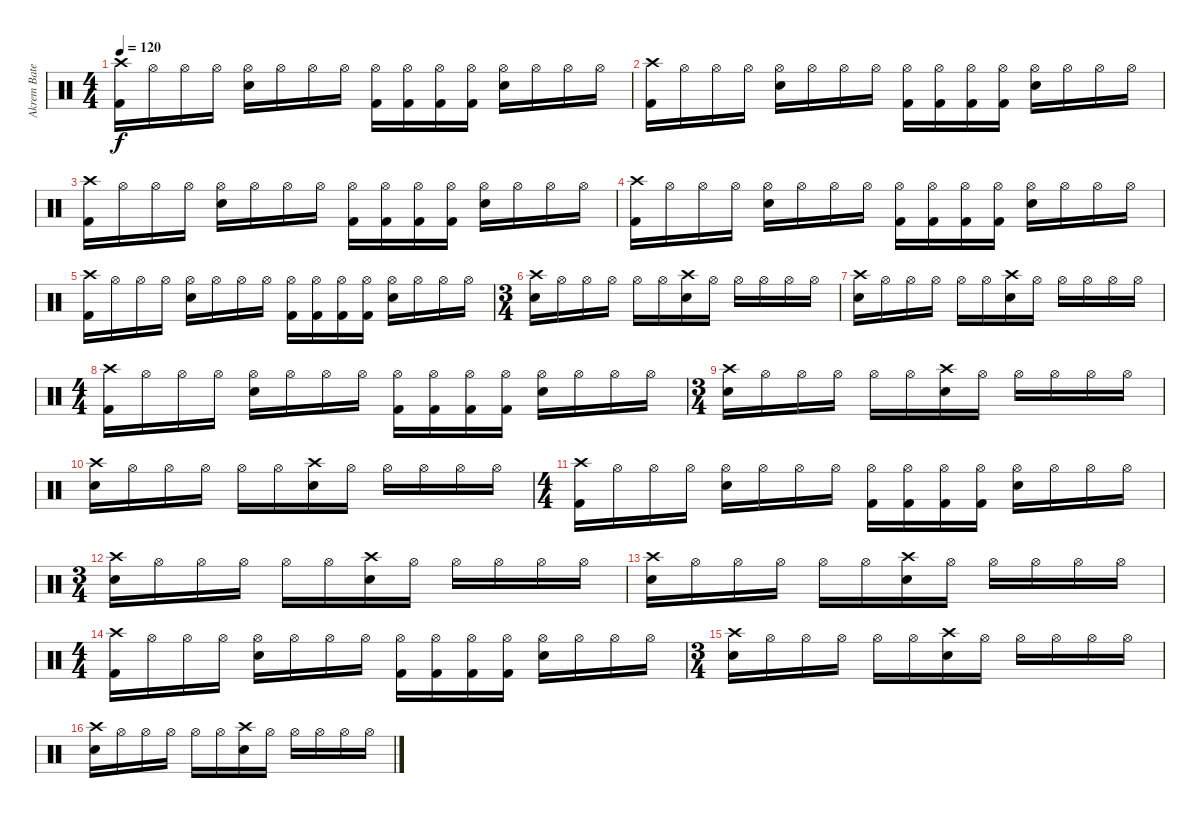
\track ("Akrem Baterie" "Akrem Bate") {instrument percussion}
\staff {score}
\articulation defaults
\ts (4 4)
\tempo 120
\clef neutral
\ks c
("Crash high (hit)" "Kick (hit) 2").16{dy f} "Hi-Hat (open)".16 "Hi-Hat (open)".16 "Hi-Hat (open)".16 ("Hi-Hat (open)" "Electric Snare (hit)").16 "Hi-Hat (open)".16 "Hi-Hat (open)".16 "Hi-Hat (open)".16 ("Hi-Hat (open)" "Kick (hit) 2").16 ("Hi-Hat (open)" "Kick (hit) 2").16 ("Hi-Hat (open)" "Kick (hit) 2").16 ("Hi-Hat (open)" "Kick (hit) 2").16 ("Hi-Hat (open)" "Electric Snare (hit)").16 "Hi-Hat (open)".16 "Hi-Hat (open)".16 "Hi-Hat (open)".16 |
("Crash high (hit)" "Kick (hit) 2").16 "Hi-Hat (open)".16 "Hi-Hat (open)".16 "Hi-Hat (open)".16 ("Hi-Hat (open)" "Electric Snare (hit)").16 "Hi-Hat (open)".16 "Hi-Hat (open)".16 "Hi-Hat (open)".16 ("Hi-Hat (open)" "Kick (hit) 2").16 ("Hi-Hat (open)" "Kick (hit) 2").16 ("Hi-Hat (open)" "Kick (hit) 2").16 ("Hi-Hat (open)" "Kick (hit) 2").16 ("Hi-Hat (open)" "Electric Snare (hit)").16 "Hi-Hat (open)".16 "Hi-Hat (open)".16 "Hi-Hat (open)".16 |
("Crash high (hit)" "Kick (hit) 2").16 "Hi-Hat (open)".16 "Hi-Hat (open)".16 "Hi-Hat (open)".16 ("Hi-Hat (open)" "Electric Snare (hit)").16 "Hi-Hat (open)".16 "Hi-Hat (open)".16 "Hi-Hat (open)".16 ("Hi-Hat (open)" "Kick (hit) 2").16 ("Hi-Hat (open)" "Kick (hit) 2").16 ("Hi-Hat (open)" "Kick (hit) 2").16 ("Hi-Hat (open)" "Kick (hit) 2").16 ("Hi-Hat (open)" "Electric Snare (hit)").16 "Hi-Hat (open)".16 "Hi-Hat (open)".16 "Hi-Hat (open)".16 |
("Crash high (hit)" "Kick (hit) 2").16 "Hi-Hat (open)".16 "Hi-Hat (open)".16 "Hi-Hat (open)".16 ("Hi-Hat (open)" "Electric Snare (hit)").16 "Hi-Hat (open)".16 "Hi-Hat (open)".16 "Hi-Hat (open)".16 ("Hi-Hat (open)" "Kick (hit) 2").16 ("Hi-Hat (open)" "Kick (hit) 2").16 ("Hi-Hat (open)" "Kick (hit) 2").16 ("Hi-Hat (open)" "Kick (hit) 2").16 ("Hi-Hat (open)" "Electric Snare (hit)").16 "Hi-Hat (open)".16 "Hi-Hat (open)".16 "Hi-Hat (open)".16 |
("Crash high (hit)" "Kick (hit) 2").16 "Hi-Hat (open)".16 "Hi-Hat (open)".16 "Hi-Hat (open)".16 ("Hi-Hat (open)" "Electric Snare (hit)").16 "Hi-Hat (open)".16 "Hi-Hat (open)".16 "Hi-Hat (open)".16 ("Hi-Hat (open)" "Kick (hit) 2").16 ("Hi-Hat (open)" "Kick (hit) 2").16 ("Hi-Hat (open)" "Kick (hit) 2").16 ("Hi-Hat (open)" "Kick (hit) 2").16 ("Hi-Hat (open)" "Electric Snare (hit)").16 "Hi-Hat (open)".16 "Hi-Hat (open)".16 "Hi-Hat (open)".16 |
\ts (3 4)
("Crash high (hit)" "Electric Snare (hit)").16 "Hi-Hat (open)".16 "Hi-Hat (open)".16 "Hi-Hat (open)".16 "Hi-Hat (open)".16 "Hi-Hat (open)".16 ("Crash high (hit)" "Electric Snare (hit)").16 "Hi-Hat (open)".16 "Hi-Hat (open)".16 "Hi-Hat (open)".16 "Hi-Hat (open)".16 "Hi-Hat (open)".16 |
("Crash high (hit)" "Electric Snare (hit)").16 "Hi-Hat (open)".16 "Hi-Hat (open)".16 "Hi-Hat (open)".16 "Hi-Hat (open)".16 "Hi-Hat (open)".16 ("Crash high (hit)" "Electric Snare (hit)").16 "Hi-Hat (open)".16 "Hi-Hat (open)".16 "Hi-Hat (open)".16 "Hi-Hat (open)".16 "Hi-Hat (open)".16 |
\ts (4 4)
("Crash high (hit)" "Kick (hit) 2").16 "Hi-Hat (open)".16 "Hi-Hat (open)".16 "Hi-Hat (open)".16 ("Hi-Hat (open)" "Electric Snare (hit)").16 "Hi-Hat (open)".16 "Hi-Hat (open)".16 "Hi-Hat (open)".16 ("Hi-Hat (open)" "Kick (hit) 2").16 ("Hi-Hat (open)" "Kick (hit) 2").16 ("Hi-Hat (open)" "Kick (hit) 2").16 ("Hi-Hat (open)" "Kick (hit) 2").16 ("Hi-Hat (open)" "Electric Snare (hit)").16 "Hi-Hat (open)".16 "Hi-Hat (open)".16 "Hi-Hat (open)".16 |
\ts (3 4)
("Crash high (hit)" "Electric Snare (hit)").16 "Hi-Hat (open)".16 "Hi-Hat (open)".16 "Hi-Hat (open)".16 "Hi-Hat (open)".16 "Hi-Hat (open)".16 ("Crash high (hit)" "Electric Snare (hit)").16 "Hi-Hat (open)".16 "Hi-Hat (open)".16 "Hi-Hat (open)".16 "Hi-Hat (open)".16 "Hi-Hat (open)".16 |
("Crash high (hit)" "Electric Snare (hit)").16 "Hi-Hat (open)".16 "Hi-Hat (open)".16 "Hi-Hat (open)".16 "Hi-Hat (open)".16 "Hi-Hat (open)".16 ("Crash high (hit)" "Electric Snare (hit)").16 "Hi-Hat (open)".16 "Hi-Hat (open)".16 "Hi-Hat (open)".16 "Hi-Hat (open)".16 "Hi-Hat (open)".16 |
\ts (4 4)
("Crash high (hit)" "Kick (hit) 2").16 "Hi-Hat (open)".16 "Hi-Hat (open)".16 "Hi-Hat (open)".16 ("Hi-Hat (open)" "Electric Snare (hit)").16 "Hi-Hat (open)".16 "Hi-Hat (open)".16 "Hi-Hat (open)".16 ("Hi-Hat (open)" "Kick (hit) 2").16 ("Hi-Hat (open)" "Kick (hit) 2").16 ("Hi-Hat (open)" "Kick (hit) 2").16 ("Hi-Hat (open)" "Kick (hit) 2").16 ("Hi-Hat (open)" "Electric Snare (hit)").16 "Hi-Hat (open)".16 "Hi-Hat (open)".16 "Hi-Hat (open)".16 |
\ts (3 4)
("Crash high (hit)" "Electric Snare (hit)").16 "Hi-Hat (open)".16 "Hi-Hat (open)".16 "Hi-Hat (open)".16 "Hi-Hat (open)".16 "Hi-Hat (open)".16 ("Crash high (hit)" "Electric Snare (hit)").16 "Hi-Hat (open)".16 "Hi-Hat (open)".16 "Hi-Hat (open)".16 "Hi-Hat (open)".16 "Hi-Hat (open)".16 |
("Crash high (hit)" "Electric Snare (hit)").16 "Hi-Hat (open)".16 "Hi-Hat (open)".16 "Hi-Hat (open)".16 "Hi-Hat (open)".16 "Hi-Hat (open)".16 ("Crash high (hit)" "Electric Snare (hit)").16 "Hi-Hat (open)".16 "Hi-Hat (open)".16 "Hi-Hat (open)".16 "Hi-Hat (open)".16 "Hi-Hat (open)".16 |
\ts (4 4)
("Crash high (hit)" "Kick (hit) 2").16 "Hi-Hat (open)".16 "Hi-Hat (open)".16 "Hi-Hat (open)".16 ("Hi-Hat (open)" "Electric Snare (hit)").16 "Hi-Hat (open)".16 "Hi-Hat (open)".16 "Hi-Hat (open)".16 ("Hi-Hat (open)" "Kick (hit) 2").16 ("Hi-Hat (open)" "Kick (hit) 2").16 ("Hi-Hat (open)" "Kick (hit) 2").16 ("Hi-Hat (open)" "Kick (hit) 2").16 ("Hi-Hat (open)" "Electric Snare (hit)").16 "Hi-Hat (open)".16 "Hi-Hat (open)".16 "Hi-Hat (open)".16 |
\ts (3 4)
("Crash high (hit)" "Electric Snare (hit)").16 "Hi-Hat (open)".16 "Hi-Hat (open)".16 "Hi-Hat (open)".16 "Hi-Hat (open)".16 "Hi-Hat (open)".16 ("Crash high (hit)" "Electric Snare (hit)").16 "Hi-Hat (open)".16 "Hi-Hat (open)".16 "Hi-Hat (open)".16 "Hi-Hat (open)".16 "Hi-Hat (open)".16 |
("Crash high (hit)" "Electric Snare (hit)").16 "Hi-Hat (open)".16 "Hi-Hat (open)".16 "Hi-Hat (open)".16 "Hi-Hat (open)".16 "Hi-Hat (open)".16 ("Crash high (hit)" "Electric Snare (hit)").16 "Hi-Hat (open)".16 "Hi-Hat (open)".16 "Hi-Hat (open)".16 "Hi-Hat (open)".16 "Hi-Hat (open)".16
